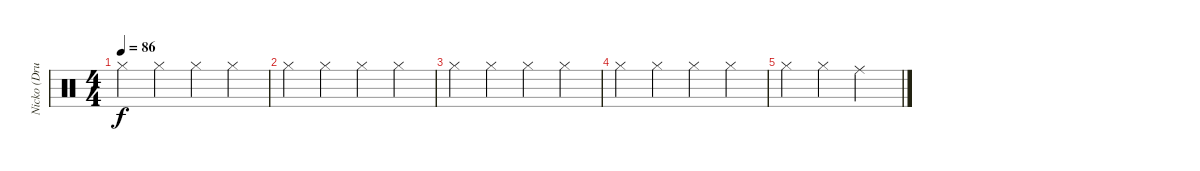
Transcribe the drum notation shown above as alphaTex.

\track ("Nicko (Drums)" "Nicko (Dru") {instrument percussion}
\staff {score}
\articulation defaults
\ts (4 4)
\tempo 86
\clef neutral
\ks c "Hi-Hat (closed)".4{dy f} "Hi-Hat (closed)".4 "Hi-Hat (closed)".4 "Hi-Hat (closed)".4
|
"Hi-Hat (closed)".4 "Hi-Hat (closed)".4 "Hi-Hat (closed)".4 "Hi-Hat (closed)".4 |
"Hi-Hat (closed)".4 "Hi-Hat (closed)".4 "Hi-Hat (closed)".4 "Hi-Hat (closed)".4 |
"Hi-Hat (closed)".4 "Hi-Hat (closed)".4 "Hi-Hat (closed)".4 "Hi-Hat (closed)".4 |
"Hi-Hat (closed)".4 "Hi-Hat (closed)".4 "Ride (middle)".2
